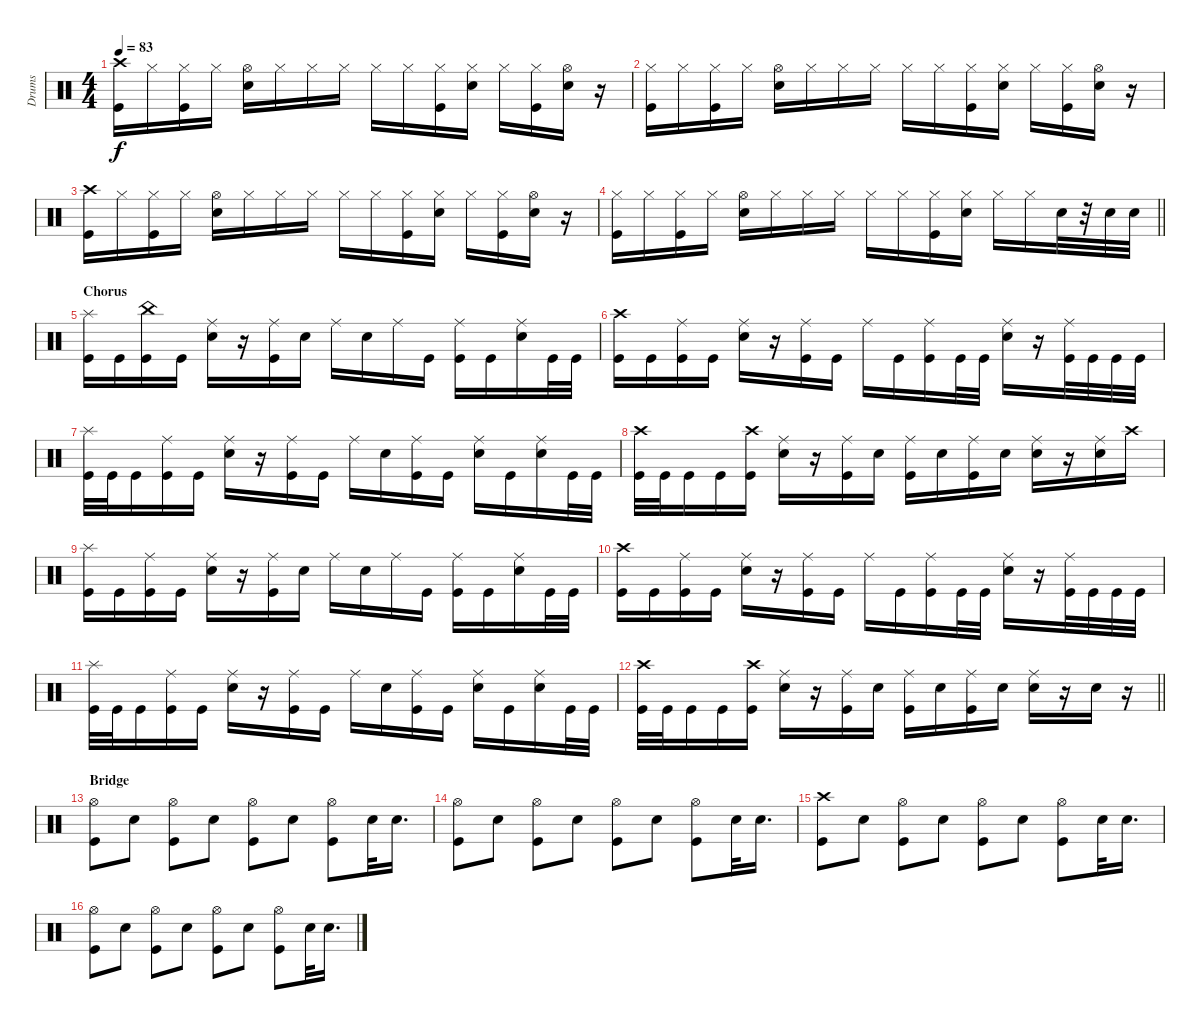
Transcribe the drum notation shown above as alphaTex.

\track ("Drums" "Drums") {instrument percussion}
\staff {score}
\articulation defaults
\ts (4 4)
\tempo 83
\clef neutral
\ks c
("Crash high (hit)" "Kick (hit)").16{dy f} "Hi-Hat (closed)".16 ("Hi-Hat (closed)" "Kick (hit)").16 "Hi-Hat (closed)".16 ("Hi-Hat (open)" "Electric Snare (hit)").16 "Hi-Hat (closed)".16 "Hi-Hat (closed)".16 "Hi-Hat (closed)".16 "Hi-Hat (closed)".16 "Hi-Hat (closed)".16 ("Hi-Hat (closed)" "Kick (hit)").16 ("Hi-Hat (closed)" "Electric Snare (hit)").16 "Hi-Hat (closed)".16 ("Hi-Hat (closed)" "Kick (hit)").16 ("Hi-Hat (open)" "Electric Snare (hit)").16 r.16 |
("Hi-Hat (closed)" "Kick (hit)").16 "Hi-Hat (closed)".16 ("Hi-Hat (closed)" "Kick (hit)").16 "Hi-Hat (closed)".16 ("Hi-Hat (open)" "Electric Snare (hit)").16 "Hi-Hat (closed)".16 "Hi-Hat (closed)".16 "Hi-Hat (closed)".16 "Hi-Hat (closed)".16 "Hi-Hat (closed)".16 ("Hi-Hat (closed)" "Kick (hit)").16 ("Hi-Hat (closed)" "Electric Snare (hit)").16 "Hi-Hat (closed)".16 ("Hi-Hat (closed)" "Kick (hit)").16 ("Hi-Hat (open)" "Electric Snare (hit)").16 r.16 |
("Crash high (hit)" "Kick (hit)").16 "Hi-Hat (closed)".16 ("Hi-Hat (closed)" "Kick (hit)").16 "Hi-Hat (closed)".16 ("Hi-Hat (open)" "Electric Snare (hit)").16 "Hi-Hat (closed)".16 "Hi-Hat (closed)".16 "Hi-Hat (closed)".16 "Hi-Hat (closed)".16 "Hi-Hat (closed)".16 ("Hi-Hat (closed)" "Kick (hit)").16 ("Hi-Hat (closed)" "Electric Snare (hit)").16 "Hi-Hat (closed)".16 ("Hi-Hat (closed)" "Kick (hit)").16 ("Hi-Hat (open)" "Electric Snare (hit)").16 r.16 |
\barLineRight lightlight
("Hi-Hat (closed)" "Kick (hit)").16 "Hi-Hat (closed)".16 ("Hi-Hat (closed)" "Kick (hit)").16 "Hi-Hat (closed)".16 ("Hi-Hat (open)" "Electric Snare (hit)").16 "Hi-Hat (closed)".16 "Hi-Hat (closed)".16 "Hi-Hat (closed)".16 "Hi-Hat (closed)".16 "Hi-Hat (closed)".16 ("Hi-Hat (closed)" "Kick (hit)").16 ("Hi-Hat (closed)" "Electric Snare (hit)").16 "Hi-Hat (closed)".16 "Hi-Hat (closed)".16 "Electric Snare (hit)".32 r.32 "Electric Snare (hit)".32 "Electric Snare (hit)".32 |
\section ("" "Chorus")
("Splash (hit)" "Kick (hit)").16 "Kick (hit)".16 ("China (hit)" "Kick (hit)").16 "Kick (hit)".16 ("Ride (middle)" "Electric Snare (hit)").16 r.16 ("Ride (middle)" "Kick (hit)").16 "Electric Snare (hit)".16 "Ride (middle)".16 "Electric Snare (hit)".16 "Ride (middle)".16 "Kick (hit)".16 ("Ride (middle)" "Kick (hit)").16 "Kick (hit)".16 ("Ride (middle)" "Electric Snare (hit)").16 "Kick (hit)".32 "Kick (hit)".32 |
("Crash high (hit)" "Kick (hit)").16 "Kick (hit)".16 ("Ride (middle)" "Kick (hit)").16 "Kick (hit)".16 ("Ride (middle)" "Electric Snare (hit)").16 r.16 ("Ride (middle)" "Kick (hit)").16 "Kick (hit)".16 "Ride (middle)".16 "Kick (hit)".16 ("Ride (middle)" "Kick (hit)").16 "Kick (hit)".32 "Kick (hit)".32 ("Ride (middle)" "Electric Snare (hit)").16 r.16 ("Ride (middle)" "Kick (hit)").32 "Kick (hit)".32 "Kick (hit)".32 "Kick (hit)".32 |
("Splash (hit)" "Kick (hit)").32 "Kick (hit)".32 "Kick (hit)".16 ("Ride (middle)" "Kick (hit)").16 "Kick (hit)".16 ("Ride (middle)" "Electric Snare (hit)").16 r.16 ("Ride (middle)" "Kick (hit)").16 "Kick (hit)".16 "Ride (middle)".16 "Electric Snare (hit)".16 ("Ride (middle)" "Kick (hit)").16 "Kick (hit)".16 ("Ride (middle)" "Electric Snare (hit)").16 "Kick (hit)".16 ("Ride (middle)" "Electric Snare (hit)").16 "Kick (hit)".32 "Kick (hit)".32 |
("Crash high (hit)" "Kick (hit)").32 "Kick (hit)".32 "Kick (hit)".16 "Kick (hit)".16 ("Crash high (hit)" "Kick (hit)").16 ("Ride (middle)" "Electric Snare (hit)").16 r.16 ("Ride (middle)" "Kick (hit)").16 "Electric Snare (hit)".16 ("Ride (middle)" "Kick (hit)").16 "Electric Snare (hit)".16 ("Ride (middle)" "Kick (hit)").16 "Electric Snare (hit)".16 ("Ride (middle)" "Electric Snare (hit)").16 r.16 ("Ride (middle)" "Electric Snare (hit)").16 "Crash high (hit)".16 |
("Splash (hit)" "Kick (hit)").16 "Kick (hit)".16 ("Ride (middle)" "Kick (hit)").16 "Kick (hit)".16 ("Ride (middle)" "Electric Snare (hit)").16 r.16 ("Ride (middle)" "Kick (hit)").16 "Electric Snare (hit)".16 "Ride (middle)".16 "Electric Snare (hit)".16 "Ride (middle)".16 "Kick (hit)".16 ("Ride (middle)" "Kick (hit)").16 "Kick (hit)".16 ("Ride (middle)" "Electric Snare (hit)").16 "Kick (hit)".32 "Kick (hit)".32 |
("Crash high (hit)" "Kick (hit)").16 "Kick (hit)".16 ("Ride (middle)" "Kick (hit)").16 "Kick (hit)".16 ("Ride (middle)" "Electric Snare (hit)").16 r.16 ("Ride (middle)" "Kick (hit)").16 "Kick (hit)".16 "Ride (middle)".16 "Kick (hit)".16 ("Ride (middle)" "Kick (hit)").16 "Kick (hit)".32 "Kick (hit)".32 ("Ride (middle)" "Electric Snare (hit)").16 r.16 ("Ride (middle)" "Kick (hit)").32 "Kick (hit)".32 "Kick (hit)".32 "Kick (hit)".32 |
("Splash (hit)" "Kick (hit)").32 "Kick (hit)".32 "Kick (hit)".16 ("Ride (middle)" "Kick (hit)").16 "Kick (hit)".16 ("Ride (middle)" "Electric Snare (hit)").16 r.16 ("Ride (middle)" "Kick (hit)").16 "Kick (hit)".16 "Ride (middle)".16 "Electric Snare (hit)".16 ("Ride (middle)" "Kick (hit)").16 "Kick (hit)".16 ("Ride (middle)" "Electric Snare (hit)").16 "Kick (hit)".16 ("Ride (middle)" "Electric Snare (hit)").16 "Kick (hit)".32 "Kick (hit)".32 |
\barLineRight lightlight
("Crash high (hit)" "Kick (hit)").32 "Kick (hit)".32 "Kick (hit)".16 "Kick (hit)".16 ("Crash high (hit)" "Kick (hit)").16 ("Ride (middle)" "Electric Snare (hit)").16 r.16 ("Ride (middle)" "Kick (hit)").16 "Electric Snare (hit)".16 ("Ride (middle)" "Kick (hit)").16 "Electric Snare (hit)".16 ("Ride (middle)" "Kick (hit)").16 "Electric Snare (hit)".16 ("Ride (middle)" "Electric Snare (hit)").16 r.16 "Electric Snare (hit)".16 r.16 |
\section ("" "Bridge")
("Hi-Hat (open)" "Kick (hit)").8 "Electric Snare (hit)".8 ("Hi-Hat (open)" "Kick (hit)").8 "Electric Snare (hit)".8 ("Hi-Hat (open)" "Kick (hit)").8 "Electric Snare (hit)".8 ("Hi-Hat (open)" "Kick (hit)").8 "Electric Snare (hit)".32 "Electric Snare (hit)".16{d} |
("Hi-Hat (open)" "Kick (hit)").8 "Electric Snare (hit)".8 ("Hi-Hat (open)" "Kick (hit)").8 "Electric Snare (hit)".8 ("Hi-Hat (open)" "Kick (hit)").8 "Electric Snare (hit)".8 ("Hi-Hat (open)" "Kick (hit)").8 "Electric Snare (hit)".32 "Electric Snare (hit)".16{d} |
("Crash high (hit)" "Kick (hit)").8 "Electric Snare (hit)".8 ("Hi-Hat (open)" "Kick (hit)").8 "Electric Snare (hit)".8 ("Hi-Hat (open)" "Kick (hit)").8 "Electric Snare (hit)".8 ("Hi-Hat (open)" "Kick (hit)").8 "Electric Snare (hit)".32 "Electric Snare (hit)".16{d} |
("Hi-Hat (open)" "Kick (hit)").8 "Electric Snare (hit)".8 ("Hi-Hat (open)" "Kick (hit)").8 "Electric Snare (hit)".8 ("Hi-Hat (open)" "Kick (hit)").8 "Electric Snare (hit)".8 ("Hi-Hat (open)" "Kick (hit)").8 "Electric Snare (hit)".32 "Electric Snare (hit)".16{d}
